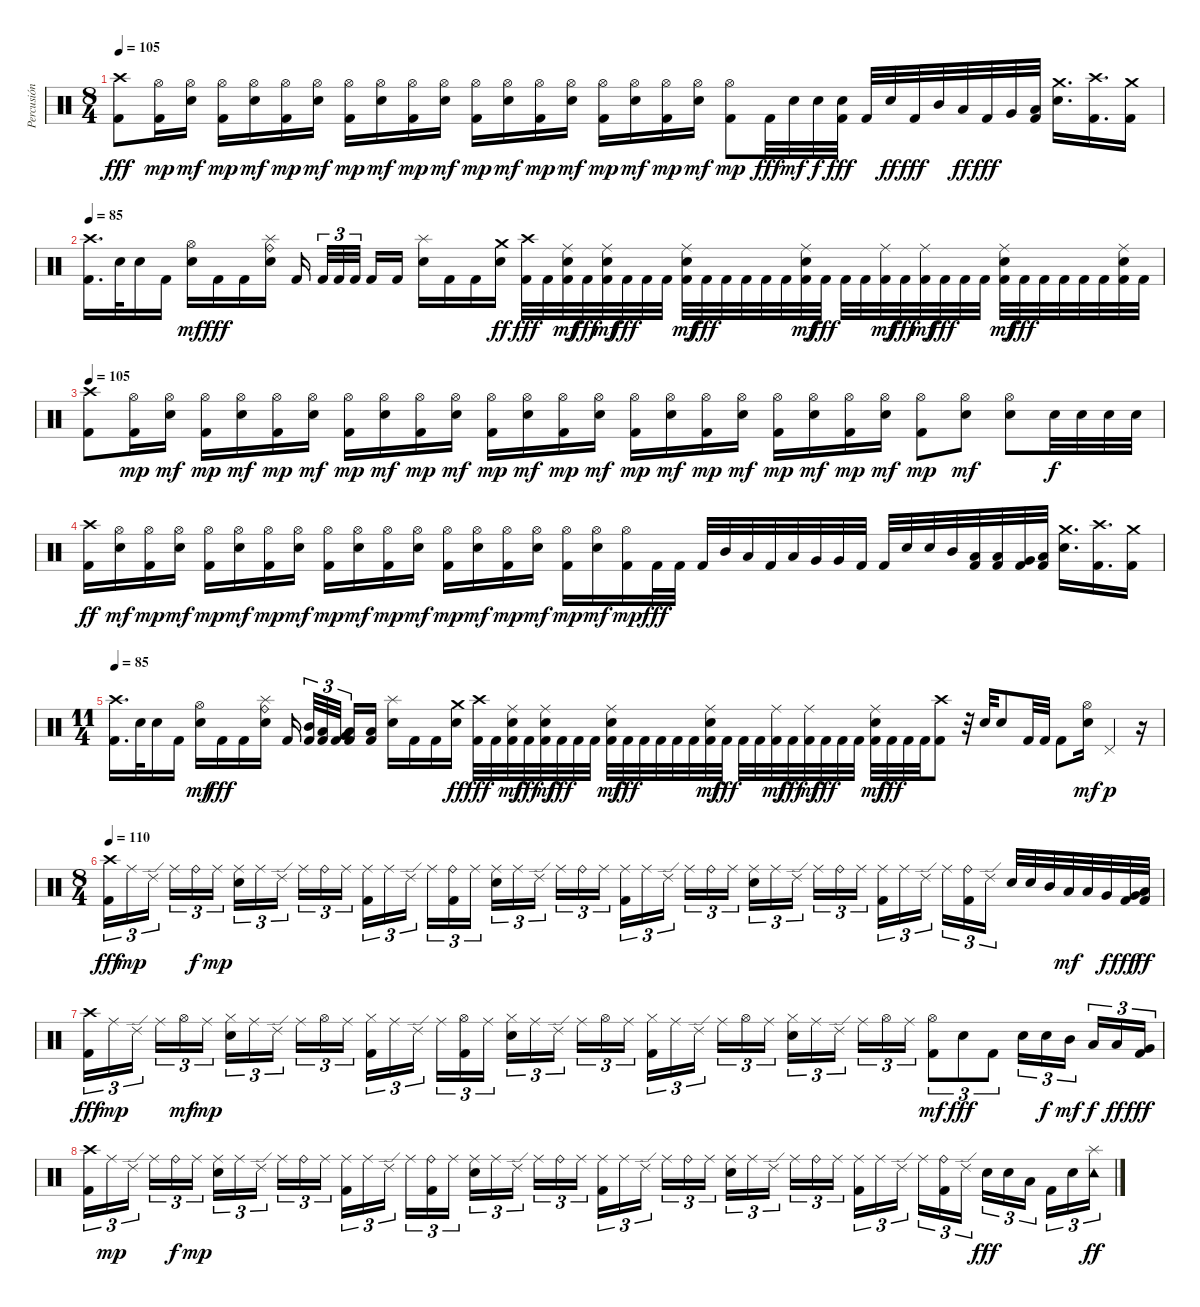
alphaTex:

\track ("Percusión" "Percusión") {instrument percussion}
\staff {score}
\articulation defaults
\ts (8 4)
\tempo 105
\clef neutral
\ks c
("Kick (hit) 2" "Crash high (hit)").8{dy fff} ("Kick (hit) 2" "Hi-Hat (open)").16{dy mp} ("Electric Snare (hit)" "Hi-Hat (open)").16{dy mf} ("Kick (hit) 2" "Hi-Hat (open)").16{dy mp} ("Electric Snare (hit)" "Hi-Hat (open)").16{dy mf} ("Kick (hit) 2" "Hi-Hat (open)").16{dy mp} ("Electric Snare (hit)" "Hi-Hat (open)").16{dy mf} ("Kick (hit) 2" "Hi-Hat (open)").16{dy mp} ("Electric Snare (hit)" "Hi-Hat (open)").16{dy mf} ("Kick (hit) 2" "Hi-Hat (open)").16{dy mp} ("Electric Snare (hit)" "Hi-Hat (open)").16{dy mf} ("Kick (hit) 2" "Hi-Hat (open)").16{dy mp} ("Electric Snare (hit)" "Hi-Hat (open)").16{dy mf} ("Kick (hit) 2" "Hi-Hat (open)").16{dy mp} ("Electric Snare (hit)" "Hi-Hat (open)").16{dy mf} ("Kick (hit) 2" "Hi-Hat (open)").16{dy mp} ("Electric Snare (hit)" "Hi-Hat (open)").16{dy mf} ("Kick (hit) 2" "Hi-Hat (open)").16{dy mp} ("Electric Snare (hit)" "Hi-Hat (open)").16{dy mf} ("Kick (hit) 2" "Hi-Hat (open)").8{dy mp} "Kick (hit) 2".32{dy fff} "Electric Snare (hit)".32{dy mf} "Electric Snare (hit)".32{dy f} ("Kick (hit) 2" "Electric Snare (hit)").32{dy fff} "Kick (hit) 2".32 "Electric Snare (hit)".32{dy ff} "Kick (hit) 2".32{dy fff} "Mid Tom (hit)".32 "Low Tom (hit)".32{dy ff} "Kick (hit) 2".32{dy fff} "Very Low Tom (hit)".32 ("Kick (hit) 2" "Low Floor Tom (hit)").32 ("Electric Snare (hit)" "Crash medium (hit)").16{d} ("Kick (hit) 2" "Crash high (hit)").16{d} ("Kick (hit) 2" "Crash medium (hit)").16 |
\tempo 85
("Kick (hit) 2" "Crash high (hit)").16{d} "Electric Snare (hit)".32 "Electric Snare (hit)".16 "Kick (hit) 2".16 ("Electric Snare (hit)" "Hi-Hat (open)").16{dy mf} "Kick (hit) 2".16{dy fff} "Kick (hit) 2".16 ("Electric Snare (hit)" "Ride (bell)" "Splash (hit)").16 "Kick (hit) 2".16{beam splitsecondary} "Kick (hit) 2".32{tu (3 2)} "Kick (hit) 2".32{tu (3 2)} "Kick (hit) 2".32{tu (3 2) beam splitsecondary} "Kick (hit) 2".16 "Kick (hit) 2".16 ("Electric Snare (hit)" "Splash (hit)").16 "Kick (hit) 2".16 "Kick (hit) 2".16 ("Electric Snare (hit)" "Crash medium (hit)").16{dy ff} ("Kick (hit) 2" "Crash high (hit)").32{dy fff} "Kick (hit) 2".32 ("Kick (hit) 2" "Electric Snare (hit)" "Ride (middle)").32{dy mf} "Kick (hit) 2".32{dy fff} ("Kick (hit) 2" "Electric Snare (hit)" "Ride (middle)").32{dy mf} "Kick (hit) 2".32{dy fff} "Kick (hit) 2".32 "Kick (hit) 2".32 ("Kick (hit) 2" "Electric Snare (hit)" "Ride (middle)").32{dy mf} "Kick (hit) 2".32{dy fff} "Kick (hit) 2".32 "Kick (hit) 2".32 "Kick (hit) 2".32 "Kick (hit) 2".32 ("Kick (hit) 2" "Electric Snare (hit)" "Ride (middle)").32{dy mf} "Kick (hit) 2".32{dy fff} "Kick (hit) 2".32 "Kick (hit) 2".32 ("Kick (hit) 2" "Ride (middle)").32{dy mf} "Kick (hit) 2".32{dy fff} ("Kick (hit) 2" "Ride (middle)").32{dy mf} "Kick (hit) 2".32{dy fff} "Kick (hit) 2".32 "Kick (hit) 2".32 ("Kick (hit) 2" "Electric Snare (hit)" "Ride (middle)").32{dy mf} "Kick (hit) 2".32{dy fff} "Kick (hit) 2".32 "Kick (hit) 2".32 "Kick (hit) 2".32 "Kick (hit) 2".32 ("Kick (hit) 2" "Electric Snare (hit)" "Ride (middle)").32 "Kick (hit) 2".32 |
\tempo 105
("Kick (hit) 2" "Crash high (hit)").8 ("Kick (hit) 2" "Hi-Hat (open)").16{dy mp} ("Electric Snare (hit)" "Hi-Hat (open)").16{dy mf} ("Kick (hit) 2" "Hi-Hat (open)").16{dy mp} ("Electric Snare (hit)" "Hi-Hat (open)").16{dy mf} ("Kick (hit) 2" "Hi-Hat (open)").16{dy mp} ("Electric Snare (hit)" "Hi-Hat (open)").16{dy mf} ("Kick (hit) 2" "Hi-Hat (open)").16{dy mp} ("Electric Snare (hit)" "Hi-Hat (open)").16{dy mf} ("Kick (hit) 2" "Hi-Hat (open)").16{dy mp} ("Electric Snare (hit)" "Hi-Hat (open)").16{dy mf} ("Kick (hit) 2" "Hi-Hat (open)").16{dy mp} ("Electric Snare (hit)" "Hi-Hat (open)").16{dy mf} ("Kick (hit) 2" "Hi-Hat (open)").16{dy mp} ("Electric Snare (hit)" "Hi-Hat (open)").16{dy mf} ("Kick (hit) 2" "Hi-Hat (open)").16{dy mp} ("Electric Snare (hit)" "Hi-Hat (open)").16{dy mf} ("Kick (hit) 2" "Hi-Hat (open)").16{dy mp} ("Electric Snare (hit)" "Hi-Hat (open)").16{dy mf} ("Kick (hit) 2" "Hi-Hat (open)").16{dy mp} ("Electric Snare (hit)" "Hi-Hat (open)").16{dy mf} ("Kick (hit) 2" "Hi-Hat (open)").16{dy mp} ("Electric Snare (hit)" "Hi-Hat (open)").16{dy mf} ("Kick (hit) 2" "Hi-Hat (open)").8{dy mp} ("Electric Snare (hit)" "Hi-Hat (open)").8{dy mf} ("Electric Snare (hit)" "Hi-Hat (open)").8 "Electric Snare (hit)".32{dy f} "Electric Snare (hit)".32 "Electric Snare (hit)".32 "Electric Snare (hit)".32 |
("Kick (hit) 2" "Crash high (hit)").16{dy ff} ("Electric Snare (hit)" "Hi-Hat (open)").16{dy mf} ("Kick (hit) 2" "Hi-Hat (open)").16{dy mp} ("Electric Snare (hit)" "Hi-Hat (open)").16{dy mf} ("Kick (hit) 2" "Hi-Hat (open)").16{dy mp} ("Electric Snare (hit)" "Hi-Hat (open)").16{dy mf} ("Kick (hit) 2" "Hi-Hat (open)").16{dy mp} ("Electric Snare (hit)" "Hi-Hat (open)").16{dy mf} ("Kick (hit) 2" "Hi-Hat (open)").16{dy mp} ("Electric Snare (hit)" "Hi-Hat (open)").16{dy mf} ("Kick (hit) 2" "Hi-Hat (open)").16{dy mp} ("Electric Snare (hit)" "Hi-Hat (open)").16{dy mf} ("Kick (hit) 2" "Hi-Hat (open)").16{dy mp} ("Electric Snare (hit)" "Hi-Hat (open)").16{dy mf} ("Kick (hit) 2" "Hi-Hat (open)").16{dy mp} ("Electric Snare (hit)" "Hi-Hat (open)").16{dy mf} ("Kick (hit) 2" "Hi-Hat (open)").16{dy mp} ("Electric Snare (hit)" "Hi-Hat (open)").16{dy mf} ("Kick (hit) 2" "Hi-Hat (open)").16{dy mp} "Kick (hit) 2".32{dy fff} "Kick (hit) 2".32 "Kick (hit) 2".32 "Mid Tom (hit)".32 "Low Tom (hit)".32 "Kick (hit) 2".32 "Low Tom (hit)".32 "Very Low Tom (hit)".32 "Very Low Tom (hit)".32 "Kick (hit) 2".32 "Kick (hit) 2".32 "Electric Snare (hit)".32 "Electric Snare (hit)".32 "Mid Tom (hit)".32 ("Kick (hit) 2" "Low Tom (hit)").32 ("Kick (hit) 2" "Low Tom (hit)").32 ("Kick (hit) 2" "Very Low Tom (hit)").32 ("Kick (hit) 2" "Low Floor Tom (hit)").32 ("Electric Snare (hit)" "Crash medium (hit)").16{d} ("Kick (hit) 2" "Crash high (hit)").16{d} ("Kick (hit) 2" "Crash medium (hit)").16 |
\ts (11 4)
\tempo 85
("Kick (hit) 2" "Crash high (hit)").16{d} "Electric Snare (hit)".32 "Electric Snare (hit)".16 "Kick (hit) 2".16 ("Electric Snare (hit)" "Hi-Hat (open)").16{dy mf} "Kick (hit) 2".16{dy fff} "Kick (hit) 2".16 ("Electric Snare (hit)" "Ride (bell)" "Splash (hit)").16 "Kick (hit) 2".16{beam splitsecondary} ("Kick (hit) 2" "Mid Tom (hit)").32{tu (3 2)} ("Kick (hit) 2" "Low Tom (hit)").32{tu (3 2)} ("Kick (hit) 2" "Very Low Tom (hit)").32{tu (3 2) beam splitsecondary} ("Kick (hit) 2" "Low Floor Tom (hit)").16 ("Kick (hit) 2" "Low Floor Tom (hit)").16 ("Electric Snare (hit)" "Splash (hit)").16 "Kick (hit) 2".16 "Kick (hit) 2".16 ("Electric Snare (hit)" "Crash medium (hit)").16{dy ff} ("Kick (hit) 2" "Crash high (hit)").32{dy fff} "Kick (hit) 2".32 ("Kick (hit) 2" "Electric Snare (hit)" "Ride (middle)").32{dy mf} "Kick (hit) 2".32{dy fff} ("Kick (hit) 2" "Electric Snare (hit)" "Ride (middle)").32{dy mf} "Kick (hit) 2".32{dy fff} "Kick (hit) 2".32 "Kick (hit) 2".32 ("Kick (hit) 2" "Electric Snare (hit)" "Ride (middle)").32{dy mf} "Kick (hit) 2".32{dy fff} "Kick (hit) 2".32 "Kick (hit) 2".32 "Kick (hit) 2".32 "Kick (hit) 2".32 ("Kick (hit) 2" "Electric Snare (hit)" "Ride (middle)").32{dy mf} "Kick (hit) 2".32{dy fff} "Kick (hit) 2".32 "Kick (hit) 2".32 ("Kick (hit) 2" "Ride (middle)").32{dy mf} "Kick (hit) 2".32{dy fff} ("Kick (hit) 2" "Ride (middle)").32{dy mf} "Kick (hit) 2".32{dy fff} "Kick (hit) 2".32 "Kick (hit) 2".32 ("Kick (hit) 2" "Electric Snare (hit)" "Ride (middle)").32{dy mf} "Kick (hit) 2".32{dy fff} "Kick (hit) 2".32 "Kick (hit) 2".32 ("Kick (hit) 2" "Crash high (hit)").8 r.32 "Electric Snare (hit)".32 "Electric Snare (hit)".8 "Kick (hit) 2".32 "Kick (hit) 2".32 "Kick (hit) 2".8 ("Electric Snare (hit)" "Hi-Hat (open)").16{dy mf} "Pedal Hi-Hat (hit)".4{dy p} r.16 |
\ts (8 4)
\tempo 110
("Kick (hit) 2" "Crash high (hit)").16{tu (3 2) dy fff} "Ride (middle)".16{tu (3 2) dy mp} "Ride (edge) 2".16{tu (3 2) beam splitsecondary} "Ride (middle)".16{tu (3 2)} "Ride (bell)".16{tu (3 2) dy f} "Ride (middle)".16{tu (3 2) dy mp} ("Electric Snare (hit)" "Ride (middle)").16{tu (3 2)} "Ride (middle)".16{tu (3 2)} "Ride (edge) 2".16{tu (3 2) beam splitsecondary} "Ride (middle)".16{tu (3 2)} "Ride (bell)".16{tu (3 2)} "Ride (middle)".16{tu (3 2)} ("Kick (hit) 2" "Ride (middle)").16{tu (3 2)} "Ride (middle)".16{tu (3 2)} "Ride (edge) 2".16{tu (3 2) beam splitsecondary} "Ride (middle)".16{tu (3 2)} ("Kick (hit) 2" "Ride (bell)").16{tu (3 2)} "Ride (middle)".16{tu (3 2)} ("Electric Snare (hit)" "Ride (middle)").16{tu (3 2)} "Ride (middle)".16{tu (3 2)} "Ride (edge) 2".16{tu (3 2) beam splitsecondary} "Ride (middle)".16{tu (3 2)} "Ride (bell)".16{tu (3 2)} "Ride (middle)".16{tu (3 2)} ("Kick (hit) 2" "Ride (middle)").16{tu (3 2)} "Ride (middle)".16{tu (3 2)} "Ride (edge) 2".16{tu (3 2) beam splitsecondary} "Ride (middle)".16{tu (3 2)} "Ride (bell)".16{tu (3 2)} "Ride (middle)".16{tu (3 2)} ("Electric Snare (hit)" "Ride (middle)").16{tu (3 2)} "Ride (middle)".16{tu (3 2)} "Ride (edge) 2".16{tu (3 2) beam splitsecondary} "Ride (middle)".16{tu (3 2)} "Ride (bell)".16{tu (3 2)} "Ride (middle)".16{tu (3 2)} ("Kick (hit) 2" "Ride (middle)").16{tu (3 2)} "Ride (middle)".16{tu (3 2)} "Ride (edge) 2".16{tu (3 2) beam splitsecondary} "Ride (middle)".16{tu (3 2)} ("Kick (hit) 2" "Ride (bell)").16{tu (3 2)} "Ride (edge) 2".16{tu (3 2)} "Electric Snare (hit)".32 "Electric Snare (hit)".32 "Mid Tom (hit)".32 "Low Tom (hit)".32{dy mf} "Low Tom (hit)".32 "Very Low Tom (hit)".32{dy f} ("Kick (hit) 2" "Very Low Tom (hit)").32{dy fff} ("Kick (hit) 2" "Low Floor Tom (hit)").32{dy ff} |
("Kick (hit) 2" "Crash high (hit)").16{tu (3 2) dy fff} "Ride (middle)".16{tu (3 2) dy mp} "Ride (edge) 2".16{tu (3 2) beam splitsecondary} "Ride (middle)".16{tu (3 2)} "Hi-Hat (open)".16{tu (3 2) dy mf} "Ride (middle)".16{tu (3 2) dy mp} ("Electric Snare (hit)" "Hi-Hat (closed)").16{tu (3 2)} "Ride (middle)".16{tu (3 2)} "Ride (edge) 2".16{tu (3 2) beam splitsecondary} "Ride (middle)".16{tu (3 2)} "Hi-Hat (open)".16{tu (3 2)} "Ride (middle)".16{tu (3 2)} ("Kick (hit) 2" "Hi-Hat (closed)").16{tu (3 2)} "Ride (middle)".16{tu (3 2)} "Ride (edge) 2".16{tu (3 2) beam splitsecondary} "Ride (middle)".16{tu (3 2)} ("Kick (hit) 2" "Hi-Hat (open)").16{tu (3 2)} "Ride (middle)".16{tu (3 2)} ("Electric Snare (hit)" "Hi-Hat (closed)").16{tu (3 2)} "Ride (middle)".16{tu (3 2)} "Ride (edge) 2".16{tu (3 2) beam splitsecondary} "Ride (middle)".16{tu (3 2)} "Hi-Hat (open)".16{tu (3 2)} "Ride (middle)".16{tu (3 2)} ("Kick (hit) 2" "Hi-Hat (closed)").16{tu (3 2)} "Ride (middle)".16{tu (3 2)} "Ride (edge) 2".16{tu (3 2) beam splitsecondary} "Ride (middle)".16{tu (3 2)} "Hi-Hat (open)".16{tu (3 2)} "Ride (middle)".16{tu (3 2)} ("Electric Snare (hit)" "Hi-Hat (closed)").16{tu (3 2)} "Ride (middle)".16{tu (3 2)} "Ride (edge) 2".16{tu (3 2) beam splitsecondary} "Ride (middle)".16{tu (3 2)} "Hi-Hat (open)".16{tu (3 2)} "Ride (middle)".16{tu (3 2)} ("Kick (hit) 2" "Hi-Hat (open)").8{tu (3 2) dy mf} "Electric Snare (hit)".8{tu (3 2) dy fff} "Kick (hit) 2".8{tu (3 2)} "Electric Snare (hit)".16{tu (3 2)} "Electric Snare (hit)".16{tu (3 2) dy f} "Mid Tom (hit)".16{tu (3 2) dy mf beam splitsecondary} "Low Tom (hit)".16{tu (3 2) dy f} "Low Tom (hit)".16{tu (3 2) dy ff} ("Kick (hit) 2" "Very Low Tom (hit)").16{tu (3 2) dy fff} |
("Kick (hit) 2" "Crash high (hit)").16{tu (3 2)} "Ride (middle)".16{tu (3 2) dy mp} "Ride (edge) 2".16{tu (3 2) beam splitsecondary} "Ride (middle)".16{tu (3 2)} "Ride (bell)".16{tu (3 2) dy f} "Ride (middle)".16{tu (3 2) dy mp} ("Electric Snare (hit)" "Ride (middle)").16{tu (3 2)} "Ride (middle)".16{tu (3 2)} "Ride (edge) 2".16{tu (3 2) beam splitsecondary} "Ride (middle)".16{tu (3 2)} "Ride (bell)".16{tu (3 2)} "Ride (middle)".16{tu (3 2)} ("Kick (hit) 2" "Ride (middle)").16{tu (3 2)} "Ride (middle)".16{tu (3 2)} "Ride (edge) 2".16{tu (3 2) beam splitsecondary} "Ride (middle)".16{tu (3 2)} ("Kick (hit) 2" "Ride (bell)").16{tu (3 2)} "Ride (middle)".16{tu (3 2)} ("Electric Snare (hit)" "Ride (middle)").16{tu (3 2)} "Ride (middle)".16{tu (3 2)} "Ride (edge) 2".16{tu (3 2) beam splitsecondary} "Ride (middle)".16{tu (3 2)} "Ride (bell)".16{tu (3 2)} "Ride (middle)".16{tu (3 2)} ("Kick (hit) 2" "Ride (middle)").16{tu (3 2)} "Ride (middle)".16{tu (3 2)} "Ride (edge) 2".16{tu (3 2) beam splitsecondary} "Ride (middle)".16{tu (3 2)} "Ride (bell)".16{tu (3 2)} "Ride (middle)".16{tu (3 2)} ("Electric Snare (hit)" "Ride (middle)").16{tu (3 2)} "Ride (middle)".16{tu (3 2)} "Ride (edge) 2".16{tu (3 2) beam splitsecondary} "Ride (middle)".16{tu (3 2)} "Ride (bell)".16{tu (3 2)} "Ride (middle)".16{tu (3 2)} ("Kick (hit) 2" "Ride (middle)").16{tu (3 2)} "Ride (middle)".16{tu (3 2)} "Ride (edge) 2".16{tu (3 2) beam splitsecondary} "Ride (middle)".16{tu (3 2)} ("Kick (hit) 2" "Ride (bell)").16{tu (3 2)} "Ride (edge) 2".16{tu (3 2)} "Electric Snare (hit)".16{tu (3 2) dy fff} "Electric Snare (hit)".16{tu (3 2)} "Low Tom (hit)".16{tu (3 2) beam splitsecondary} "Kick (hit) 2".16{tu (3 2)} "Electric Snare (hit)".16{tu (3 2)} ("Splash (hit)" "Tambourine (hit)").16{tu (3 2) dy ff}
